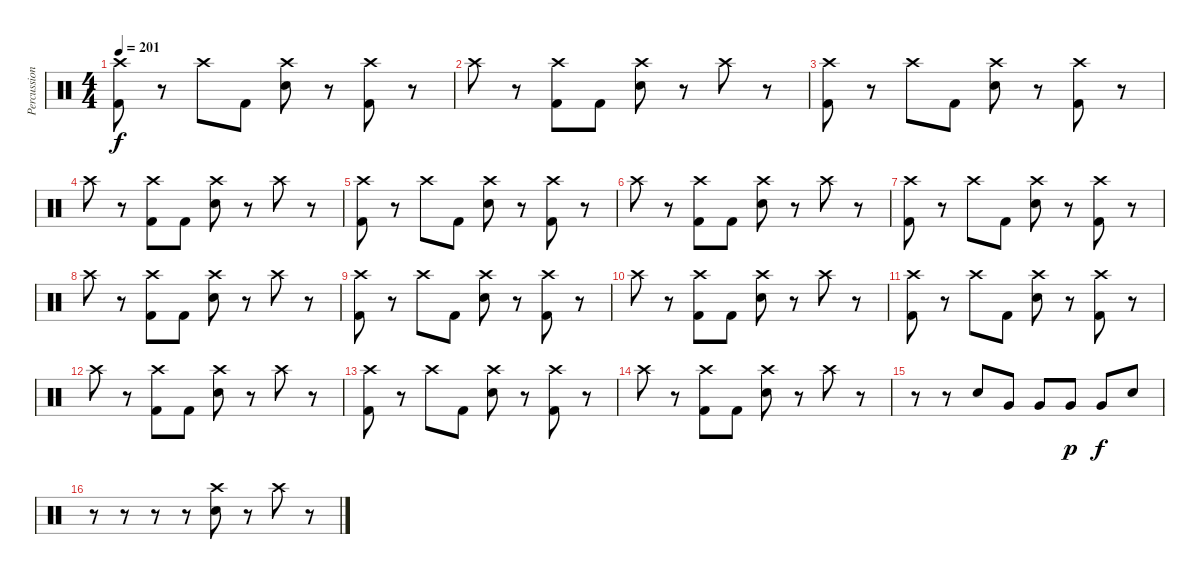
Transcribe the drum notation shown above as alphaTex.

\track ("Percussion" "Percussion") {instrument percussion}
\staff {score}
\articulation defaults
\ts (4 4)
\tempo 201
\clef neutral
\ks c
("Crash high (hit)" "Kick (hit) 2").8{dy f} r.8 "Crash high (hit)".8 "Kick (hit) 2".8 ("Crash high (hit)" "Electric Snare (hit)").8 r.8 ("Crash high (hit)" "Kick (hit) 2").8 r.8 |
"Crash high (hit)".8 r.8 ("Crash high (hit)" "Kick (hit) 2").8 "Kick (hit) 2".8 ("Crash high (hit)" "Electric Snare (hit)").8 r.8 "Crash high (hit)".8 r.8 |
("Crash high (hit)" "Kick (hit) 2").8 r.8 "Crash high (hit)".8 "Kick (hit) 2".8 ("Crash high (hit)" "Electric Snare (hit)").8 r.8 ("Crash high (hit)" "Kick (hit) 2").8 r.8 |
"Crash high (hit)".8 r.8 ("Crash high (hit)" "Kick (hit) 2").8 "Kick (hit) 2".8 ("Crash high (hit)" "Electric Snare (hit)").8 r.8 "Crash high (hit)".8 r.8 |
("Crash high (hit)" "Kick (hit) 2").8 r.8 "Crash high (hit)".8 "Kick (hit) 2".8 ("Crash high (hit)" "Electric Snare (hit)").8 r.8 ("Crash high (hit)" "Kick (hit) 2").8 r.8 |
"Crash high (hit)".8 r.8 ("Crash high (hit)" "Kick (hit) 2").8 "Kick (hit) 2".8 ("Crash high (hit)" "Electric Snare (hit)").8 r.8 "Crash high (hit)".8 r.8 |
("Crash high (hit)" "Kick (hit) 2").8 r.8 "Crash high (hit)".8 "Kick (hit) 2".8 ("Crash high (hit)" "Electric Snare (hit)").8 r.8 ("Crash high (hit)" "Kick (hit) 2").8 r.8 |
"Crash high (hit)".8 r.8 ("Crash high (hit)" "Kick (hit) 2").8 "Kick (hit) 2".8 ("Crash high (hit)" "Electric Snare (hit)").8 r.8 "Crash high (hit)".8 r.8 |
("Crash high (hit)" "Kick (hit) 2").8 r.8 "Crash high (hit)".8 "Kick (hit) 2".8 ("Crash high (hit)" "Electric Snare (hit)").8 r.8 ("Crash high (hit)" "Kick (hit) 2").8 r.8 |
"Crash high (hit)".8 r.8 ("Crash high (hit)" "Kick (hit) 2").8 "Kick (hit) 2".8 ("Crash high (hit)" "Electric Snare (hit)").8 r.8 "Crash high (hit)".8 r.8 |
("Crash high (hit)" "Kick (hit) 2").8 r.8 "Crash high (hit)".8 "Kick (hit) 2".8 ("Crash high (hit)" "Electric Snare (hit)").8 r.8 ("Crash high (hit)" "Kick (hit) 2").8 r.8 |
"Crash high (hit)".8 r.8 ("Crash high (hit)" "Kick (hit) 2").8 "Kick (hit) 2".8 ("Crash high (hit)" "Electric Snare (hit)").8 r.8 "Crash high (hit)".8 r.8 |
("Crash high (hit)" "Kick (hit) 2").8 r.8 "Crash high (hit)".8 "Kick (hit) 2".8 ("Crash high (hit)" "Electric Snare (hit)").8 r.8 ("Crash high (hit)" "Kick (hit) 2").8 r.8 |
"Crash high (hit)".8 r.8 ("Crash high (hit)" "Kick (hit) 2").8 "Kick (hit) 2".8 ("Crash high (hit)" "Electric Snare (hit)").8 r.8 "Crash high (hit)".8 r.8 |
r.8 r.8 "Electric Snare (hit)".8 "Very Low Tom (hit)".8 "Very Low Tom (hit)".8 "Very Low Tom (hit)".8{dy p} "Very Low Tom (hit)".8{dy f} "Electric Snare (hit)".8 |
r.8 r.8 r.8 r.8 ("Crash high (hit)" "Electric Snare (hit)").8 r.8 "Crash high (hit)".8 r.8
